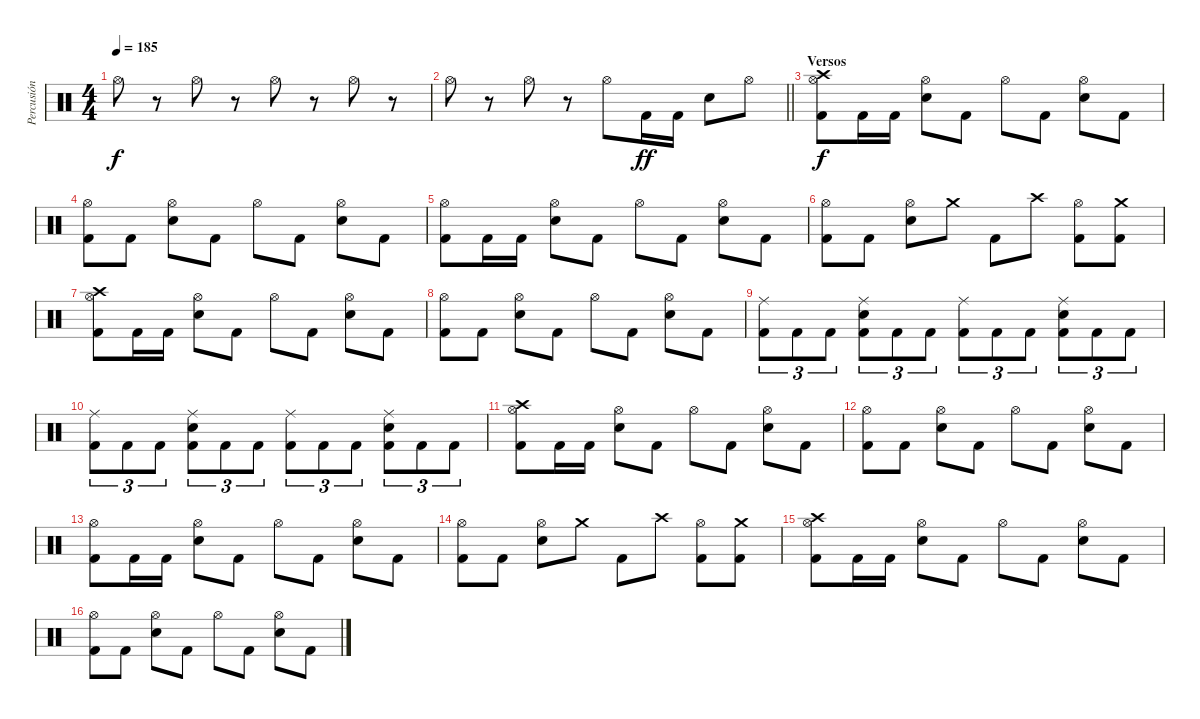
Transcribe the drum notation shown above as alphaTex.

\track ("Percusión" "Percusión") {instrument percussion}
\staff {score}
\articulation defaults
\ts (4 4)
\tempo 185
\clef neutral
\ks c "Hi-Hat (open)".8{dy f}
r.8 "Hi-Hat (open)".8 r.8 "Hi-Hat (open)".8 r.8 "Hi-Hat (open)".8 r.8 |
\barLineRight lightlight "Hi-Hat (open)".8
r.8 "Hi-Hat (open)".8 r.8 "Hi-Hat (open)".8 "Kick (hit) 2".16{dy ff} "Kick (hit) 2".16 "Snare (hit) 2".8 "Hi-Hat (open)".8 |
\section ("" "Versos")
("Crash high (hit)" "Hi-Hat (open)" "Kick (hit) 2").8{dy f} "Kick (hit) 2".16 "Kick (hit) 2".16 ("Hi-Hat (open)" "Snare (hit) 2").8 "Kick (hit) 2".8 "Hi-Hat (open)".8 "Kick (hit) 2".8 ("Hi-Hat (open)" "Snare (hit) 2").8 "Kick (hit) 2".8 |
("Hi-Hat (open)" "Kick (hit) 2").8 "Kick (hit) 2".8 ("Hi-Hat (open)" "Snare (hit) 2").8 "Kick (hit) 2".8 "Hi-Hat (open)".8 "Kick (hit) 2".8 ("Hi-Hat (open)" "Snare (hit) 2").8 "Kick (hit) 2".8 |
("Hi-Hat (open)" "Kick (hit) 2").8 "Kick (hit) 2".16 "Kick (hit) 2".16 ("Hi-Hat (open)" "Snare (hit) 2").8 "Kick (hit) 2".8 "Hi-Hat (open)".8 "Kick (hit) 2".8 ("Hi-Hat (open)" "Snare (hit) 2").8 "Kick (hit) 2".8 |
("Hi-Hat (open)" "Kick (hit) 2").8 "Kick (hit) 2".8 ("Hi-Hat (open)" "Snare (hit) 2").8 "Crash medium (hit)".8 "Kick (hit) 2".8 "Crash high (hit)".8 ("Hi-Hat (open)" "Kick (hit) 2").8 ("Crash medium (hit)" "Kick (hit) 2").8 |
("Crash high (hit)" "Hi-Hat (open)" "Kick (hit) 2").8 "Kick (hit) 2".16 "Kick (hit) 2".16 ("Hi-Hat (open)" "Snare (hit) 2").8 "Kick (hit) 2".8 "Hi-Hat (open)".8 "Kick (hit) 2".8 ("Hi-Hat (open)" "Snare (hit) 2").8 "Kick (hit) 2".8 |
("Hi-Hat (open)" "Kick (hit) 2").8 "Kick (hit) 2".8 ("Hi-Hat (open)" "Snare (hit) 2").8 "Kick (hit) 2".8 "Hi-Hat (open)".8 "Kick (hit) 2".8 ("Hi-Hat (open)" "Snare (hit) 2").8 "Kick (hit) 2".8 |
("Ride (middle)" "Kick (hit) 2").8{tu (3 2)} "Kick (hit) 2".8{tu (3 2)} "Kick (hit) 2".8{tu (3 2)} ("Ride (middle)" "Snare (hit) 2" "Kick (hit) 2").8{tu (3 2)} "Kick (hit) 2".8{tu (3 2)} "Kick (hit) 2".8{tu (3 2)} ("Ride (middle)" "Kick (hit) 2").8{tu (3 2)} "Kick (hit) 2".8{tu (3 2)} "Kick (hit) 2".8{tu (3 2)} ("Ride (middle)" "Snare (hit) 2" "Kick (hit) 2").8{tu (3 2)} "Kick (hit) 2".8{tu (3 2)} "Kick (hit) 2".8{tu (3 2)} |
("Ride (middle)" "Kick (hit) 2").8{tu (3 2)} "Kick (hit) 2".8{tu (3 2)} "Kick (hit) 2".8{tu (3 2)} ("Ride (middle)" "Snare (hit) 2" "Kick (hit) 2").8{tu (3 2)} "Kick (hit) 2".8{tu (3 2)} "Kick (hit) 2".8{tu (3 2)} ("Ride (middle)" "Kick (hit) 2").8{tu (3 2)} "Kick (hit) 2".8{tu (3 2)} "Kick (hit) 2".8{tu (3 2)} ("Ride (middle)" "Snare (hit) 2" "Kick (hit) 2").8{tu (3 2)} "Kick (hit) 2".8{tu (3 2)} "Kick (hit) 2".8{tu (3 2)} |
("Crash high (hit)" "Hi-Hat (open)" "Kick (hit) 2").8 "Kick (hit) 2".16 "Kick (hit) 2".16 ("Hi-Hat (open)" "Snare (hit) 2").8 "Kick (hit) 2".8 "Hi-Hat (open)".8 "Kick (hit) 2".8 ("Hi-Hat (open)" "Snare (hit) 2").8 "Kick (hit) 2".8 |
("Hi-Hat (open)" "Kick (hit) 2").8 "Kick (hit) 2".8 ("Hi-Hat (open)" "Snare (hit) 2").8 "Kick (hit) 2".8 "Hi-Hat (open)".8 "Kick (hit) 2".8 ("Hi-Hat (open)" "Snare (hit) 2").8 "Kick (hit) 2".8 |
("Hi-Hat (open)" "Kick (hit) 2").8 "Kick (hit) 2".16 "Kick (hit) 2".16 ("Hi-Hat (open)" "Snare (hit) 2").8 "Kick (hit) 2".8 "Hi-Hat (open)".8 "Kick (hit) 2".8 ("Hi-Hat (open)" "Snare (hit) 2").8 "Kick (hit) 2".8 |
("Hi-Hat (open)" "Kick (hit) 2").8 "Kick (hit) 2".8 ("Hi-Hat (open)" "Snare (hit) 2").8 "Crash medium (hit)".8 "Kick (hit) 2".8 "Crash high (hit)".8 ("Hi-Hat (open)" "Kick (hit) 2").8 ("Crash medium (hit)" "Kick (hit) 2").8 |
("Crash high (hit)" "Hi-Hat (open)" "Kick (hit) 2").8 "Kick (hit) 2".16 "Kick (hit) 2".16 ("Hi-Hat (open)" "Snare (hit) 2").8 "Kick (hit) 2".8 "Hi-Hat (open)".8 "Kick (hit) 2".8 ("Hi-Hat (open)" "Snare (hit) 2").8 "Kick (hit) 2".8 |
("Hi-Hat (open)" "Kick (hit) 2").8 "Kick (hit) 2".8 ("Hi-Hat (open)" "Snare (hit) 2").8 "Kick (hit) 2".8 "Hi-Hat (open)".8 "Kick (hit) 2".8 ("Hi-Hat (open)" "Snare (hit) 2").8 "Kick (hit) 2".8
